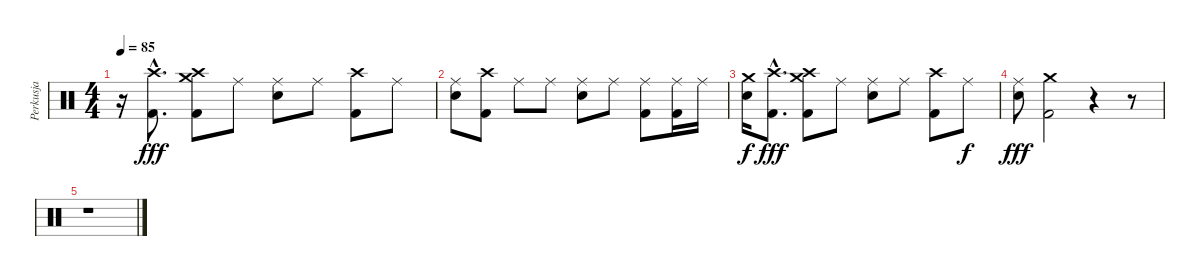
\track ("Perkusja" "Perkusja") {instrument percussion}
\staff {score}
\articulation defaults
\ts (4 4)
\tempo 85
\clef neutral
\ks c
r.16{dy fff} ("Crash high (hit)"{hac} "Kick (hit) 2"{hac}).8{d} ("Crash medium (hit)" "Crash high (hit)" "Kick (hit) 2").8 "Ride (middle)".8 ("Ride (middle)" "Electric Snare (hit)").8 "Ride (middle)".8 ("Crash high (hit)" "Kick (hit) 2").8 "Ride (middle)".8 |
("Ride (middle)" "Electric Snare (hit)").8 ("Crash high (hit)" "Kick (hit) 2").8 "Ride (middle)".8 "Ride (middle)".8 ("Ride (middle)" "Electric Snare (hit)").8 "Ride (middle)".8 ("Ride (middle)" "Kick (hit) 2").8 ("Ride (middle)" "Kick (hit) 2").16 "Ride (middle)".16 |
("Crash medium (hit)" "Electric Snare (hit)").16{dy f} ("Crash high (hit)"{hac} "Kick (hit) 2"{hac}).8{d dy fff} ("Crash medium (hit)" "Crash high (hit)" "Kick (hit) 2").8 "Ride (middle)".8 ("Ride (middle)" "Electric Snare (hit)").8 "Ride (middle)".8 ("Crash high (hit)" "Kick (hit) 2").8 "Ride (middle)".8{dy f} |
("Ride (middle)" "Electric Snare (hit)").8{dy fff} ("Crash medium (hit)" "Kick (hit) 2").2 r.4 r.8 |
r.1
